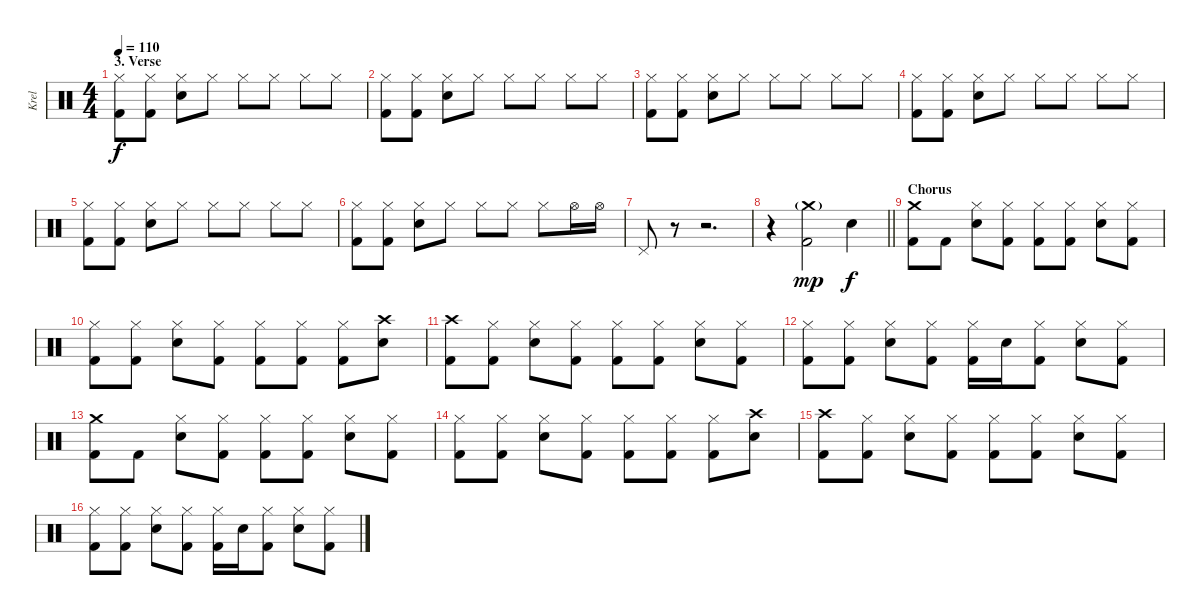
\track ("Krel" "Krel") {instrument percussion}
\staff {score}
\articulation defaults
\ts (4 4)
\section ("" "3. Verse")
\tempo 110
\clef neutral
\ks c
("Hi-Hat (closed)" "Kick (hit) 2").8{dy f} ("Hi-Hat (closed)" "Kick (hit) 2").8 ("Hi-Hat (closed)" "Snare (hit) 2").8 "Hi-Hat (closed)".8 "Hi-Hat (closed)".8 "Hi-Hat (closed)".8 "Hi-Hat (closed)".8 "Hi-Hat (closed)".8 |
("Hi-Hat (closed)" "Kick (hit) 2").8 ("Hi-Hat (closed)" "Kick (hit) 2").8 ("Hi-Hat (closed)" "Snare (hit) 2").8 "Hi-Hat (closed)".8 "Hi-Hat (closed)".8 "Hi-Hat (closed)".8 "Hi-Hat (closed)".8 "Hi-Hat (closed)".8 |
("Hi-Hat (closed)" "Kick (hit) 2").8 ("Hi-Hat (closed)" "Kick (hit) 2").8 ("Hi-Hat (closed)" "Snare (hit) 2").8 "Hi-Hat (closed)".8 "Hi-Hat (closed)".8 "Hi-Hat (closed)".8 "Hi-Hat (closed)".8 "Hi-Hat (closed)".8 |
("Hi-Hat (closed)" "Kick (hit) 2").8 ("Hi-Hat (closed)" "Kick (hit) 2").8 ("Hi-Hat (closed)" "Snare (hit) 2").8 "Hi-Hat (closed)".8 "Hi-Hat (closed)".8 "Hi-Hat (closed)".8 "Hi-Hat (closed)".8 "Hi-Hat (closed)".8 |
("Hi-Hat (closed)" "Kick (hit) 2").8 ("Hi-Hat (closed)" "Kick (hit) 2").8 ("Hi-Hat (closed)" "Snare (hit) 2").8 "Hi-Hat (closed)".8 "Hi-Hat (closed)".8 "Hi-Hat (closed)".8 "Hi-Hat (closed)".8 "Hi-Hat (closed)".8 |
("Hi-Hat (closed)" "Kick (hit) 2").8 ("Hi-Hat (closed)" "Kick (hit) 2").8 ("Hi-Hat (closed)" "Snare (hit) 2").8 "Hi-Hat (closed)".8 "Hi-Hat (closed)".8 "Hi-Hat (closed)".8 "Hi-Hat (closed)".8 "Hi-Hat (open)".16 "Hi-Hat (open)".16 |
"Pedal Hi-Hat (hit)".8 r.8 r.2{d} |
\barLineRight lightlight
r.4 ("Crash medium (hit)"{g} "Kick (hit) 2").2{dy mp} "Snare (hit) 2".4{dy f} |
\section ("" "Chorus")
("Crash medium (hit)" "Kick (hit) 2").8 "Kick (hit) 2".8 ("Hi-Hat (closed)" "Snare (hit) 2").8 ("Hi-Hat (closed)" "Kick (hit) 2").8 ("Hi-Hat (closed)" "Kick (hit) 2").8 ("Hi-Hat (closed)" "Kick (hit) 2").8 ("Hi-Hat (closed)" "Snare (hit) 2").8 ("Hi-Hat (closed)" "Kick (hit) 2").8 |
("Hi-Hat (closed)" "Kick (hit) 2").8 ("Hi-Hat (closed)" "Kick (hit) 2").8 ("Hi-Hat (closed)" "Snare (hit) 2").8 ("Hi-Hat (closed)" "Kick (hit) 2").8 ("Hi-Hat (closed)" "Kick (hit) 2").8 ("Hi-Hat (closed)" "Kick (hit) 2").8 ("Hi-Hat (closed)" "Kick (hit) 2").8 ("Crash high (hit)" "Snare (hit) 2").8 |
("Crash high (hit)" "Kick (hit) 2").8 ("Hi-Hat (closed)" "Kick (hit) 2").8 ("Hi-Hat (closed)" "Snare (hit) 2").8 ("Hi-Hat (closed)" "Kick (hit) 2").8 ("Hi-Hat (closed)" "Kick (hit) 2").8 ("Hi-Hat (closed)" "Kick (hit) 2").8 ("Hi-Hat (closed)" "Snare (hit) 2").8 ("Hi-Hat (closed)" "Kick (hit) 2").8 |
("Hi-Hat (closed)" "Kick (hit) 2").8 ("Hi-Hat (closed)" "Kick (hit) 2").8 ("Hi-Hat (closed)" "Snare (hit) 2").8 ("Hi-Hat (closed)" "Kick (hit) 2").8 ("Hi-Hat (closed)" "Kick (hit) 2").16 "Snare (hit) 2".16 ("Hi-Hat (closed)" "Kick (hit) 2").8 ("Hi-Hat (closed)" "Snare (hit) 2").8 ("Hi-Hat (closed)" "Kick (hit) 2").8 |
("Crash medium (hit)" "Kick (hit) 2").8 "Kick (hit) 2".8 ("Hi-Hat (closed)" "Snare (hit) 2").8 ("Hi-Hat (closed)" "Kick (hit) 2").8 ("Hi-Hat (closed)" "Kick (hit) 2").8 ("Hi-Hat (closed)" "Kick (hit) 2").8 ("Hi-Hat (closed)" "Snare (hit) 2").8 ("Hi-Hat (closed)" "Kick (hit) 2").8 |
("Hi-Hat (closed)" "Kick (hit) 2").8 ("Hi-Hat (closed)" "Kick (hit) 2").8 ("Hi-Hat (closed)" "Snare (hit) 2").8 ("Hi-Hat (closed)" "Kick (hit) 2").8 ("Hi-Hat (closed)" "Kick (hit) 2").8 ("Hi-Hat (closed)" "Kick (hit) 2").8 ("Hi-Hat (closed)" "Kick (hit) 2").8 ("Crash high (hit)" "Snare (hit) 2").8 |
("Crash high (hit)" "Kick (hit) 2").8 ("Hi-Hat (closed)" "Kick (hit) 2").8 ("Hi-Hat (closed)" "Snare (hit) 2").8 ("Hi-Hat (closed)" "Kick (hit) 2").8 ("Hi-Hat (closed)" "Kick (hit) 2").8 ("Hi-Hat (closed)" "Kick (hit) 2").8 ("Hi-Hat (closed)" "Snare (hit) 2").8 ("Hi-Hat (closed)" "Kick (hit) 2").8 |
("Hi-Hat (closed)" "Kick (hit) 2").8 ("Hi-Hat (closed)" "Kick (hit) 2").8 ("Hi-Hat (closed)" "Snare (hit) 2").8 ("Hi-Hat (closed)" "Kick (hit) 2").8 ("Hi-Hat (closed)" "Kick (hit) 2").16 "Snare (hit) 2".16 ("Hi-Hat (closed)" "Kick (hit) 2").8 ("Hi-Hat (closed)" "Snare (hit) 2").8 ("Hi-Hat (closed)" "Kick (hit) 2").8
